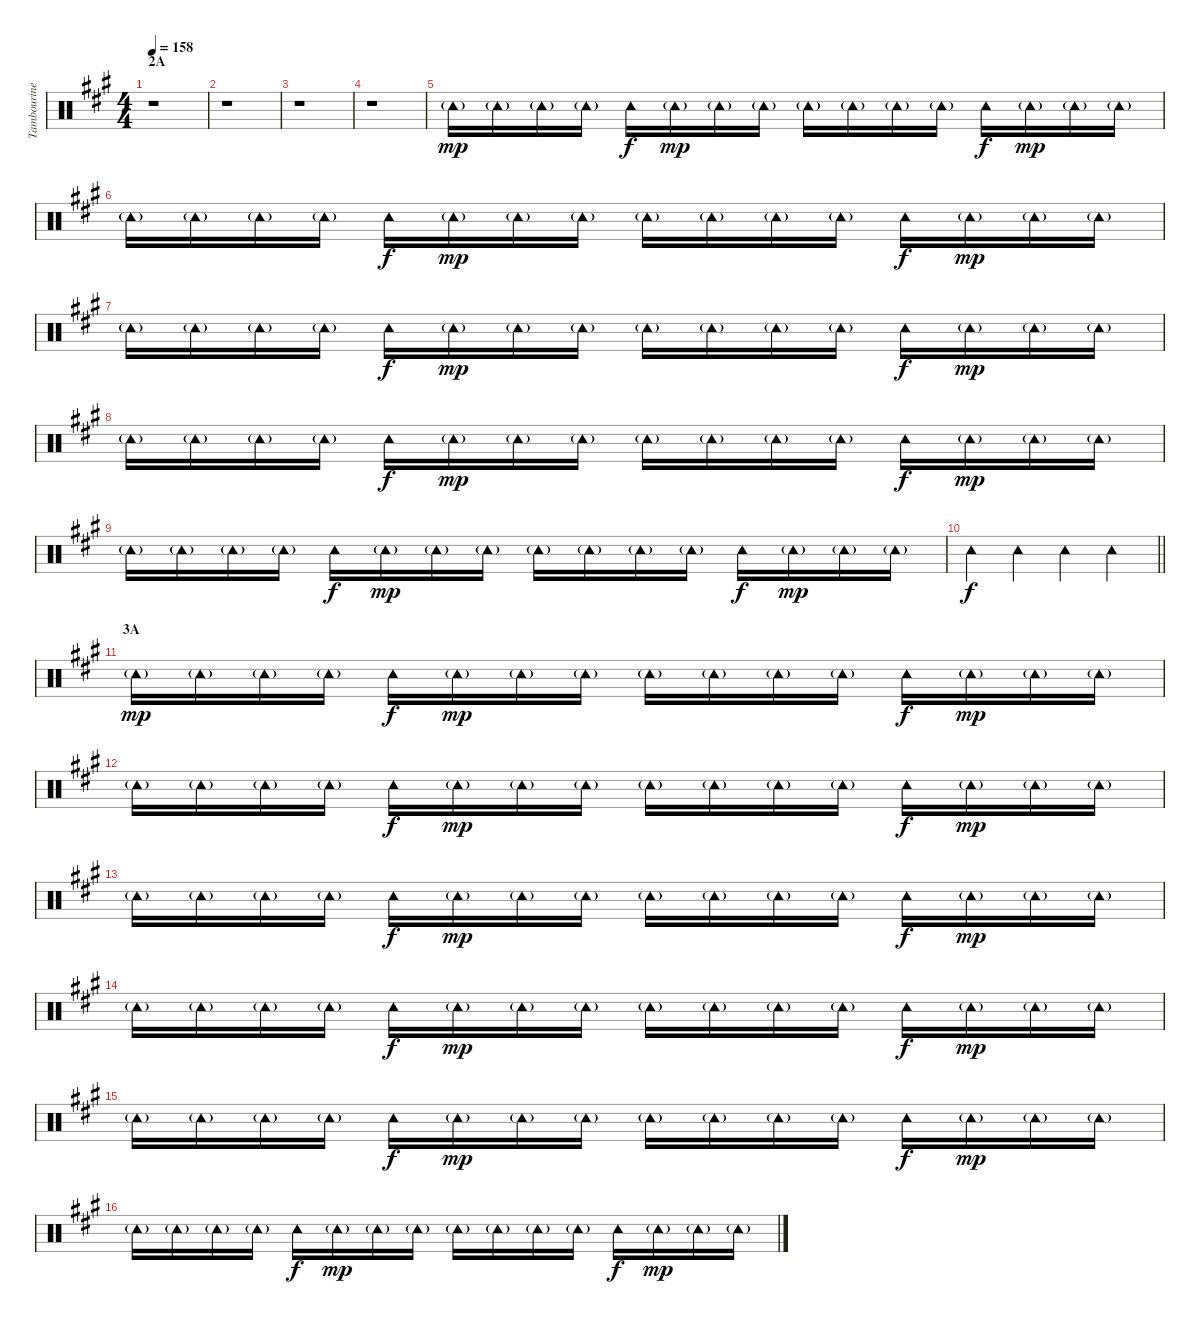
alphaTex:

\track ("Tambourine" "Tambourine") {instrument percussion}
\staff {score}
\articulation defaults
\ts (4 4)
\section ("" "2A")
\tempo 158
\clef neutral
\ks a
r.1{dy mp} |
r.1 |
r.1 |
r.1 |
"Tambourine (hit)"{g}.16 "Tambourine (hit)"{g}.16 "Tambourine (hit)"{g}.16 "Tambourine (hit)"{g}.16 "Tambourine (hit)".16{dy f} "Tambourine (hit)"{g}.16{dy mp} "Tambourine (hit)"{g}.16 "Tambourine (hit)"{g}.16 "Tambourine (hit)"{g}.16 "Tambourine (hit)"{g}.16 "Tambourine (hit)"{g}.16 "Tambourine (hit)"{g}.16 "Tambourine (hit)".16{dy f} "Tambourine (hit)"{g}.16{dy mp} "Tambourine (hit)"{g}.16 "Tambourine (hit)"{g}.16 |
"Tambourine (hit)"{g}.16 "Tambourine (hit)"{g}.16 "Tambourine (hit)"{g}.16 "Tambourine (hit)"{g}.16 "Tambourine (hit)".16{dy f} "Tambourine (hit)"{g}.16{dy mp} "Tambourine (hit)"{g}.16 "Tambourine (hit)"{g}.16 "Tambourine (hit)"{g}.16 "Tambourine (hit)"{g}.16 "Tambourine (hit)"{g}.16 "Tambourine (hit)"{g}.16 "Tambourine (hit)".16{dy f} "Tambourine (hit)"{g}.16{dy mp} "Tambourine (hit)"{g}.16 "Tambourine (hit)"{g}.16 |
"Tambourine (hit)"{g}.16 "Tambourine (hit)"{g}.16 "Tambourine (hit)"{g}.16 "Tambourine (hit)"{g}.16 "Tambourine (hit)".16{dy f} "Tambourine (hit)"{g}.16{dy mp} "Tambourine (hit)"{g}.16 "Tambourine (hit)"{g}.16 "Tambourine (hit)"{g}.16 "Tambourine (hit)"{g}.16 "Tambourine (hit)"{g}.16 "Tambourine (hit)"{g}.16 "Tambourine (hit)".16{dy f} "Tambourine (hit)"{g}.16{dy mp} "Tambourine (hit)"{g}.16 "Tambourine (hit)"{g}.16 |
"Tambourine (hit)"{g}.16 "Tambourine (hit)"{g}.16 "Tambourine (hit)"{g}.16 "Tambourine (hit)"{g}.16 "Tambourine (hit)".16{dy f} "Tambourine (hit)"{g}.16{dy mp} "Tambourine (hit)"{g}.16 "Tambourine (hit)"{g}.16 "Tambourine (hit)"{g}.16 "Tambourine (hit)"{g}.16 "Tambourine (hit)"{g}.16 "Tambourine (hit)"{g}.16 "Tambourine (hit)".16{dy f} "Tambourine (hit)"{g}.16{dy mp} "Tambourine (hit)"{g}.16 "Tambourine (hit)"{g}.16 |
"Tambourine (hit)"{g}.16 "Tambourine (hit)"{g}.16 "Tambourine (hit)"{g}.16 "Tambourine (hit)"{g}.16 "Tambourine (hit)".16{dy f} "Tambourine (hit)"{g}.16{dy mp} "Tambourine (hit)"{g}.16 "Tambourine (hit)"{g}.16 "Tambourine (hit)"{g}.16 "Tambourine (hit)"{g}.16 "Tambourine (hit)"{g}.16 "Tambourine (hit)"{g}.16 "Tambourine (hit)".16{dy f} "Tambourine (hit)"{g}.16{dy mp} "Tambourine (hit)"{g}.16 "Tambourine (hit)"{g}.16 |
\barLineRight lightlight "Tambourine (hit)".4{dy f} "Tambourine (hit)".4 "Tambourine (hit)".4 "Tambourine (hit)".4
|
\section ("" "3A")
"Tambourine (hit)"{g}.16{dy mp} "Tambourine (hit)"{g}.16 "Tambourine (hit)"{g}.16 "Tambourine (hit)"{g}.16 "Tambourine (hit)".16{dy f} "Tambourine (hit)"{g}.16{dy mp} "Tambourine (hit)"{g}.16 "Tambourine (hit)"{g}.16 "Tambourine (hit)"{g}.16 "Tambourine (hit)"{g}.16 "Tambourine (hit)"{g}.16 "Tambourine (hit)"{g}.16 "Tambourine (hit)".16{dy f} "Tambourine (hit)"{g}.16{dy mp} "Tambourine (hit)"{g}.16 "Tambourine (hit)"{g}.16 |
"Tambourine (hit)"{g}.16 "Tambourine (hit)"{g}.16 "Tambourine (hit)"{g}.16 "Tambourine (hit)"{g}.16 "Tambourine (hit)".16{dy f} "Tambourine (hit)"{g}.16{dy mp} "Tambourine (hit)"{g}.16 "Tambourine (hit)"{g}.16 "Tambourine (hit)"{g}.16 "Tambourine (hit)"{g}.16 "Tambourine (hit)"{g}.16 "Tambourine (hit)"{g}.16 "Tambourine (hit)".16{dy f} "Tambourine (hit)"{g}.16{dy mp} "Tambourine (hit)"{g}.16 "Tambourine (hit)"{g}.16 |
"Tambourine (hit)"{g}.16 "Tambourine (hit)"{g}.16 "Tambourine (hit)"{g}.16 "Tambourine (hit)"{g}.16 "Tambourine (hit)".16{dy f} "Tambourine (hit)"{g}.16{dy mp} "Tambourine (hit)"{g}.16 "Tambourine (hit)"{g}.16 "Tambourine (hit)"{g}.16 "Tambourine (hit)"{g}.16 "Tambourine (hit)"{g}.16 "Tambourine (hit)"{g}.16 "Tambourine (hit)".16{dy f} "Tambourine (hit)"{g}.16{dy mp} "Tambourine (hit)"{g}.16 "Tambourine (hit)"{g}.16 |
"Tambourine (hit)"{g}.16 "Tambourine (hit)"{g}.16 "Tambourine (hit)"{g}.16 "Tambourine (hit)"{g}.16 "Tambourine (hit)".16{dy f} "Tambourine (hit)"{g}.16{dy mp} "Tambourine (hit)"{g}.16 "Tambourine (hit)"{g}.16 "Tambourine (hit)"{g}.16 "Tambourine (hit)"{g}.16 "Tambourine (hit)"{g}.16 "Tambourine (hit)"{g}.16 "Tambourine (hit)".16{dy f} "Tambourine (hit)"{g}.16{dy mp} "Tambourine (hit)"{g}.16 "Tambourine (hit)"{g}.16 |
"Tambourine (hit)"{g}.16 "Tambourine (hit)"{g}.16 "Tambourine (hit)"{g}.16 "Tambourine (hit)"{g}.16 "Tambourine (hit)".16{dy f} "Tambourine (hit)"{g}.16{dy mp} "Tambourine (hit)"{g}.16 "Tambourine (hit)"{g}.16 "Tambourine (hit)"{g}.16 "Tambourine (hit)"{g}.16 "Tambourine (hit)"{g}.16 "Tambourine (hit)"{g}.16 "Tambourine (hit)".16{dy f} "Tambourine (hit)"{g}.16{dy mp} "Tambourine (hit)"{g}.16 "Tambourine (hit)"{g}.16 |
"Tambourine (hit)"{g}.16 "Tambourine (hit)"{g}.16 "Tambourine (hit)"{g}.16 "Tambourine (hit)"{g}.16 "Tambourine (hit)".16{dy f} "Tambourine (hit)"{g}.16{dy mp} "Tambourine (hit)"{g}.16 "Tambourine (hit)"{g}.16 "Tambourine (hit)"{g}.16 "Tambourine (hit)"{g}.16 "Tambourine (hit)"{g}.16 "Tambourine (hit)"{g}.16 "Tambourine (hit)".16{dy f} "Tambourine (hit)"{g}.16{dy mp} "Tambourine (hit)"{g}.16 "Tambourine (hit)"{g}.16
